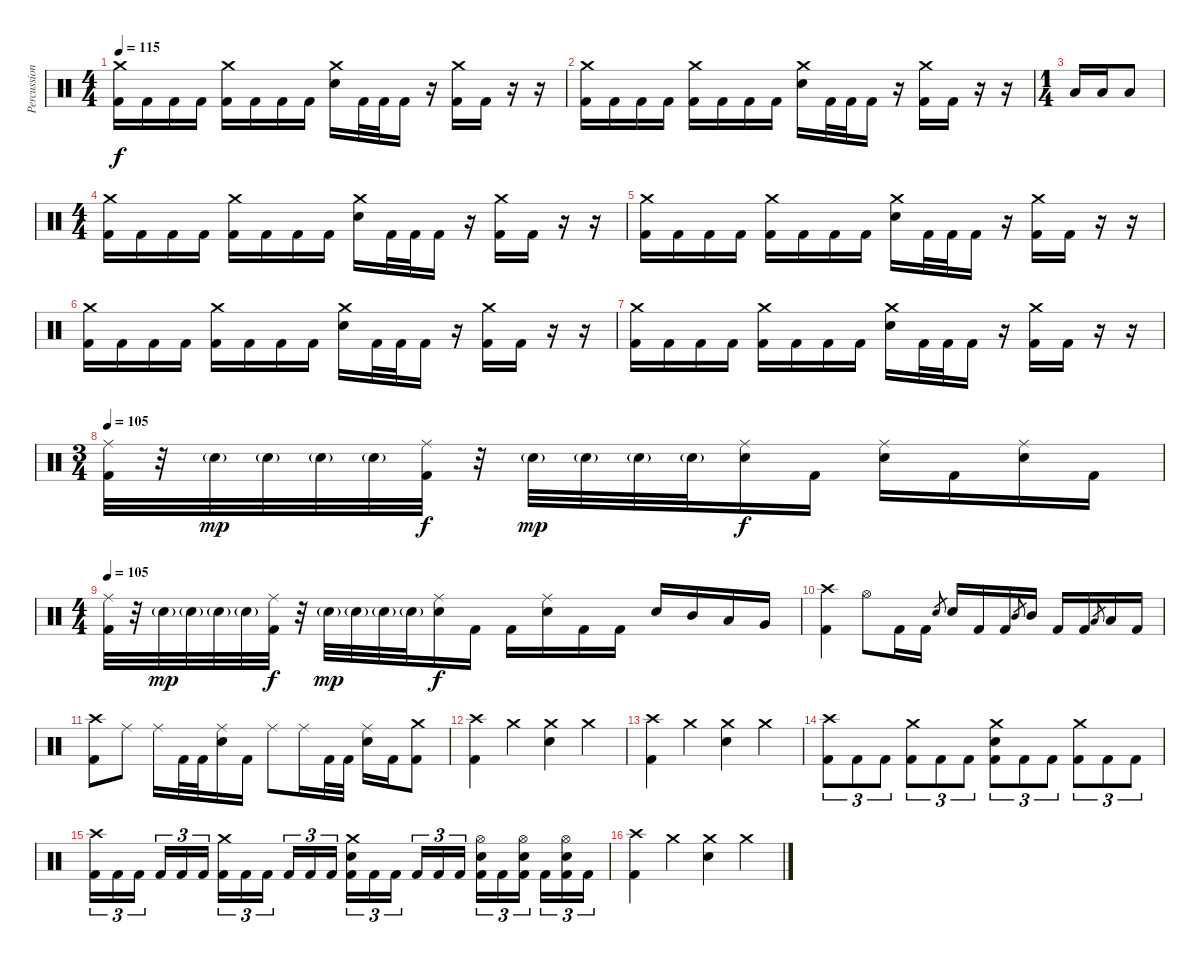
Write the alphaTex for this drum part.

\track ("Percussion" "Percussion") {instrument percussion}
\staff {score}
\articulation defaults
\ts (4 4)
\tempo 115
\clef neutral
\ks c
("Crash medium (hit)" "Kick (hit) 2").16{dy f} "Kick (hit) 2".16 "Kick (hit) 2".16 "Kick (hit) 2".16 ("Crash medium (hit)" "Kick (hit) 2").16 "Kick (hit) 2".16 "Kick (hit) 2".16 "Kick (hit) 2".16 ("Crash medium (hit)" "Electric Snare (hit)").16 "Kick (hit) 2".32 "Kick (hit) 2".32 "Kick (hit) 2".16 r.16 ("Crash medium (hit)" "Kick (hit) 2").16 "Kick (hit) 2".16 r.16 r.16 |
("Crash medium (hit)" "Kick (hit) 2").16 "Kick (hit) 2".16 "Kick (hit) 2".16 "Kick (hit) 2".16 ("Crash medium (hit)" "Kick (hit) 2").16 "Kick (hit) 2".16 "Kick (hit) 2".16 "Kick (hit) 2".16 ("Crash medium (hit)" "Electric Snare (hit)").16 "Kick (hit) 2".32 "Kick (hit) 2".32 "Kick (hit) 2".16 r.16 ("Crash medium (hit)" "Kick (hit) 2").16 "Kick (hit) 2".16 r.16 r.16 |
\ts (1 4)
"Low Tom (hit)".16 "Low Tom (hit)".16 "Low Tom (hit)".8 |
\ts (4 4)
("Crash medium (hit)" "Kick (hit) 2").16 "Kick (hit) 2".16 "Kick (hit) 2".16 "Kick (hit) 2".16 ("Crash medium (hit)" "Kick (hit) 2").16 "Kick (hit) 2".16 "Kick (hit) 2".16 "Kick (hit) 2".16 ("Crash medium (hit)" "Electric Snare (hit)").16 "Kick (hit) 2".32 "Kick (hit) 2".32 "Kick (hit) 2".16 r.16 ("Crash medium (hit)" "Kick (hit) 2").16 "Kick (hit) 2".16 r.16 r.16 |
("Crash medium (hit)" "Kick (hit) 2").16 "Kick (hit) 2".16 "Kick (hit) 2".16 "Kick (hit) 2".16 ("Crash medium (hit)" "Kick (hit) 2").16 "Kick (hit) 2".16 "Kick (hit) 2".16 "Kick (hit) 2".16 ("Crash medium (hit)" "Electric Snare (hit)").16 "Kick (hit) 2".32 "Kick (hit) 2".32 "Kick (hit) 2".16 r.16 ("Crash medium (hit)" "Kick (hit) 2").16 "Kick (hit) 2".16 r.16 r.16 |
("Crash medium (hit)" "Kick (hit) 2").16 "Kick (hit) 2".16 "Kick (hit) 2".16 "Kick (hit) 2".16 ("Crash medium (hit)" "Kick (hit) 2").16 "Kick (hit) 2".16 "Kick (hit) 2".16 "Kick (hit) 2".16 ("Crash medium (hit)" "Electric Snare (hit)").16 "Kick (hit) 2".32 "Kick (hit) 2".32 "Kick (hit) 2".16 r.16 ("Crash medium (hit)" "Kick (hit) 2").16 "Kick (hit) 2".16 r.16 r.16 |
("Crash medium (hit)" "Kick (hit) 2").16 "Kick (hit) 2".16 "Kick (hit) 2".16 "Kick (hit) 2".16 ("Crash medium (hit)" "Kick (hit) 2").16 "Kick (hit) 2".16 "Kick (hit) 2".16 "Kick (hit) 2".16 ("Crash medium (hit)" "Electric Snare (hit)").16 "Kick (hit) 2".32 "Kick (hit) 2".32 "Kick (hit) 2".16 r.16 ("Crash medium (hit)" "Kick (hit) 2").16 "Kick (hit) 2".16 r.16 r.16 |
\ts (3 4)
\tempo 105
("Ride (middle)" "Kick (hit) 2").32 r.32 "Electric Snare (hit)"{g}.32{dy mp} "Electric Snare (hit)"{g}.32 "Electric Snare (hit)"{g}.32 "Electric Snare (hit)"{g}.32 ("Ride (middle)" "Kick (hit) 2").32{dy f} r.32 "Electric Snare (hit)"{g}.32{dy mp} "Electric Snare (hit)"{g}.32 "Electric Snare (hit)"{g}.32 "Electric Snare (hit)"{g}.32 ("Ride (middle)" "Electric Snare (hit)").16{dy f} "Kick (hit) 2".16 ("Ride (middle)" "Electric Snare (hit)").16 "Kick (hit) 2".16 ("Ride (middle)" "Electric Snare (hit)").16 "Kick (hit) 2".16 |
\ts (4 4)
\tempo 105
("Ride (middle)" "Kick (hit) 2").32 r.32 "Electric Snare (hit)"{g}.32{dy mp} "Electric Snare (hit)"{g}.32 "Electric Snare (hit)"{g}.32 "Electric Snare (hit)"{g}.32 ("Ride (middle)" "Kick (hit) 2").32{dy f} r.32 "Electric Snare (hit)"{g}.32{dy mp} "Electric Snare (hit)"{g}.32 "Electric Snare (hit)"{g}.32 "Electric Snare (hit)"{g}.32 ("Ride (middle)" "Electric Snare (hit)").16{dy f} "Kick (hit) 2".16 "Kick (hit) 2".16 ("Ride (middle)" "Electric Snare (hit)").16 "Kick (hit) 2".16 "Kick (hit) 2".16 "Electric Snare (hit)".16 "Mid Tom (hit)".16 "Low Tom (hit)".16 "Very Low Tom (hit)".16 |
("Crash high (hit)" "Kick (hit) 2").4 "Hi-Hat (open)".8 "Kick (hit) 2".16 "Kick (hit) 2".16 "Electric Snare (hit)".8{gr} "Electric Snare (hit)".16 "Kick (hit) 2".16 "Kick (hit) 2".16 "Mid Tom (hit)".8{gr} "Mid Tom (hit)".16 "Kick (hit) 2".16 "Kick (hit) 2".16 "Low Tom (hit)".8{gr} "Low Tom (hit)".16 "Kick (hit) 2".16 |
("Crash high (hit)" "Kick (hit) 2").8 "Ride (middle)".8 "Ride (middle)".16 "Kick (hit) 2".32 "Kick (hit) 2".32 ("Ride (middle)" "Electric Snare (hit)").16 "Kick (hit) 2".16 "Ride (middle)".8 "Ride (middle)".16 "Kick (hit) 2".32 "Kick (hit) 2".32 ("Ride (middle)" "Electric Snare (hit)").16 "Kick (hit) 2".16 ("Crash medium (hit)" "Kick (hit) 2").8 |
("Crash high (hit)" "Kick (hit) 2").4 "Crash medium (hit)".4 ("Crash medium (hit)" "Electric Snare (hit)").4 "Crash medium (hit)".4 |
("Crash high (hit)" "Kick (hit) 2").4 "Crash medium (hit)".4 ("Crash medium (hit)" "Electric Snare (hit)").4 "Crash medium (hit)".4 |
("Crash high (hit)" "Kick (hit) 2").8{tu (3 2)} "Kick (hit) 2".8{tu (3 2)} "Kick (hit) 2".8{tu (3 2)} ("Crash medium (hit)" "Kick (hit) 2").8{tu (3 2)} "Kick (hit) 2".8{tu (3 2)} "Kick (hit) 2".8{tu (3 2)} ("Crash medium (hit)" "Electric Snare (hit)" "Kick (hit) 2").8{tu (3 2)} "Kick (hit) 2".8{tu (3 2)} "Kick (hit) 2".8{tu (3 2)} ("Crash medium (hit)" "Kick (hit) 2").8{tu (3 2)} "Kick (hit) 2".8{tu (3 2)} "Kick (hit) 2".8{tu (3 2)} |
("Crash high (hit)" "Kick (hit) 2").16{tu (3 2)} "Kick (hit) 2".16{tu (3 2)} "Kick (hit) 2".16{tu (3 2)} "Kick (hit) 2".16{tu (3 2)} "Kick (hit) 2".16{tu (3 2)} "Kick (hit) 2".16{tu (3 2)} ("Crash medium (hit)" "Kick (hit) 2").16{tu (3 2)} "Kick (hit) 2".16{tu (3 2)} "Kick (hit) 2".16{tu (3 2)} "Kick (hit) 2".16{tu (3 2)} "Kick (hit) 2".16{tu (3 2)} "Kick (hit) 2".16{tu (3 2)} ("Crash medium (hit)" "Electric Snare (hit)" "Kick (hit) 2").16{tu (3 2)} "Kick (hit) 2".16{tu (3 2)} "Kick (hit) 2".16{tu (3 2)} "Kick (hit) 2".16{tu (3 2)} "Kick (hit) 2".16{tu (3 2)} "Kick (hit) 2".16{tu (3 2)} ("Hi-Hat (open)" "Electric Snare (hit)" "Kick (hit) 2").16{tu (3 2)} "Kick (hit) 2".16{tu (3 2)} ("Hi-Hat (open)" "Electric Snare (hit)" "Kick (hit) 2").16{tu (3 2)} "Kick (hit) 2".16{tu (3 2)} ("Hi-Hat (open)" "Electric Snare (hit)" "Kick (hit) 2").16{tu (3 2)} "Kick (hit) 2".16{tu (3 2)} |
("Crash high (hit)" "Kick (hit) 2").4 "Crash medium (hit)".4 ("Crash medium (hit)" "Electric Snare (hit)").4 "Crash medium (hit)".4
